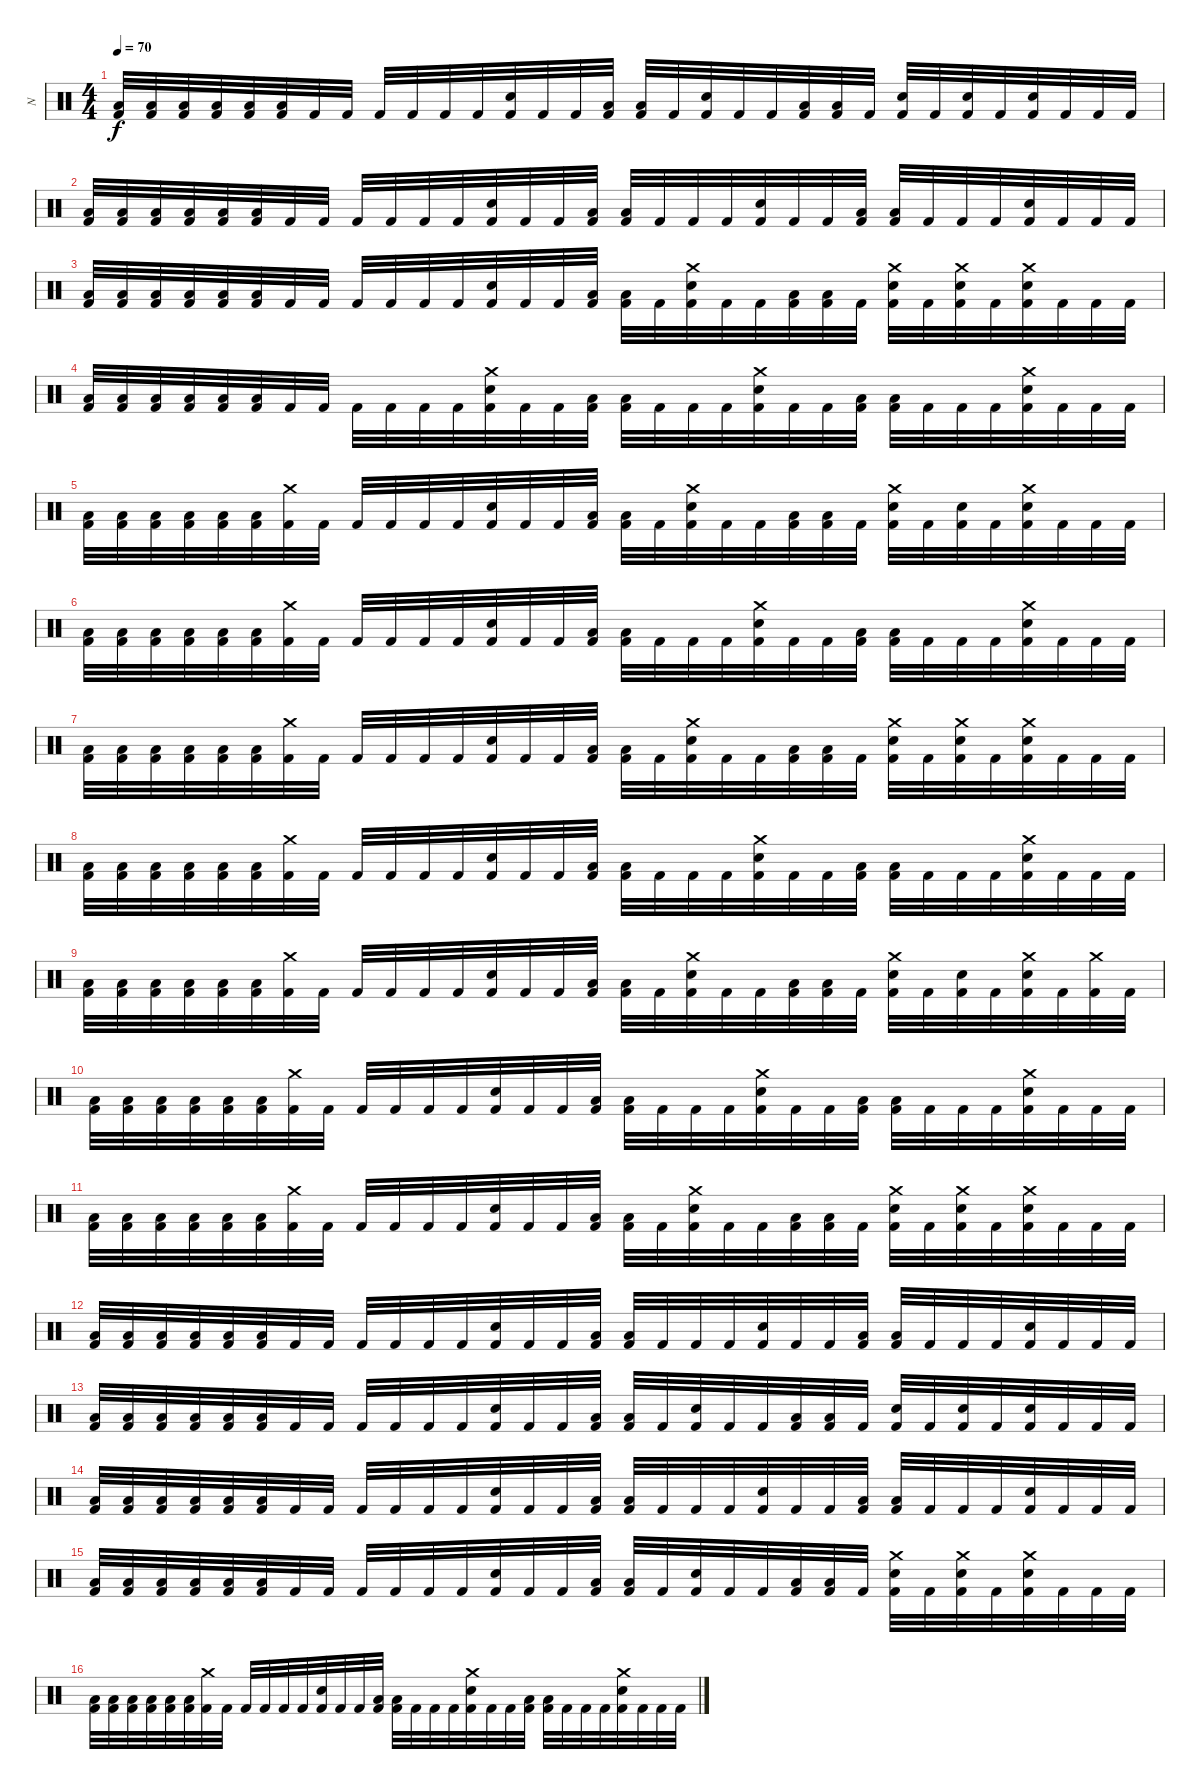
\track ("N" "N") {instrument percussion}
\staff {score}
\articulation defaults
\ts (4 4)
\tempo 70
\clef neutral
\ks c
("Low Tom (hit)" "Kick (hit) 2").32{dy f} ("Low Tom (hit)" "Kick (hit) 2").32 ("Low Tom (hit)" "Kick (hit) 2").32 ("Low Tom (hit)" "Kick (hit) 2").32 ("Low Tom (hit)" "Kick (hit) 2").32 ("Low Tom (hit)" "Kick (hit) 2").32 "Kick (hit) 2".32 "Kick (hit) 2".32 "Kick (hit) 2".32 "Kick (hit) 2".32 "Kick (hit) 2".32 "Kick (hit) 2".32 ("Electric Snare (hit)" "Kick (hit) 2").32 "Kick (hit) 2".32 "Kick (hit) 2".32 ("Low Tom (hit)" "Kick (hit) 2").32 ("Low Tom (hit)" "Kick (hit) 2").32 "Kick (hit) 2".32 ("Electric Snare (hit)" "Kick (hit) 2").32 "Kick (hit) 2".32 "Kick (hit) 2".32 ("Low Tom (hit)" "Kick (hit) 2").32 ("Low Tom (hit)" "Kick (hit) 2").32 "Kick (hit) 2".32 ("Electric Snare (hit)" "Kick (hit) 2").32 "Kick (hit) 2".32 ("Electric Snare (hit)" "Kick (hit) 2").32 "Kick (hit) 2".32 ("Electric Snare (hit)" "Kick (hit) 2").32 "Kick (hit) 2".32 "Kick (hit) 2".32 "Kick (hit) 2".32 |
("Low Tom (hit)" "Kick (hit) 2").32 ("Low Tom (hit)" "Kick (hit) 2").32 ("Low Tom (hit)" "Kick (hit) 2").32 ("Low Tom (hit)" "Kick (hit) 2").32 ("Low Tom (hit)" "Kick (hit) 2").32 ("Low Tom (hit)" "Kick (hit) 2").32 "Kick (hit) 2".32 "Kick (hit) 2".32 "Kick (hit) 2".32 "Kick (hit) 2".32 "Kick (hit) 2".32 "Kick (hit) 2".32 ("Electric Snare (hit)" "Kick (hit) 2").32 "Kick (hit) 2".32 "Kick (hit) 2".32 ("Low Tom (hit)" "Kick (hit) 2").32 ("Low Tom (hit)" "Kick (hit) 2").32 "Kick (hit) 2".32 "Kick (hit) 2".32 "Kick (hit) 2".32 ("Electric Snare (hit)" "Kick (hit) 2").32 "Kick (hit) 2".32 "Kick (hit) 2".32 ("Low Tom (hit)" "Kick (hit) 2").32 ("Low Tom (hit)" "Kick (hit) 2").32 "Kick (hit) 2".32 "Kick (hit) 2".32 "Kick (hit) 2".32 ("Electric Snare (hit)" "Kick (hit) 2").32 "Kick (hit) 2".32 "Kick (hit) 2".32 "Kick (hit) 2".32 |
("Low Tom (hit)" "Kick (hit) 2").32 ("Low Tom (hit)" "Kick (hit) 2").32 ("Low Tom (hit)" "Kick (hit) 2").32 ("Low Tom (hit)" "Kick (hit) 2").32 ("Low Tom (hit)" "Kick (hit) 2").32 ("Low Tom (hit)" "Kick (hit) 2").32 "Kick (hit) 2".32 "Kick (hit) 2".32 "Kick (hit) 2".32 "Kick (hit) 2".32 "Kick (hit) 2".32 "Kick (hit) 2".32 ("Electric Snare (hit)" "Kick (hit) 2").32 "Kick (hit) 2".32 "Kick (hit) 2".32 ("Low Tom (hit)" "Kick (hit) 2").32 ("Low Tom (hit)" "Kick (hit) 2").32 "Kick (hit) 2".32 ("Crash medium (hit)" "Electric Snare (hit)" "Kick (hit) 2").32 "Kick (hit) 2".32 "Kick (hit) 2".32 ("Low Tom (hit)" "Kick (hit) 2").32 ("Low Tom (hit)" "Kick (hit) 2").32 "Kick (hit) 2".32 ("Crash medium (hit)" "Electric Snare (hit)" "Kick (hit) 2").32 "Kick (hit) 2".32 ("Crash medium (hit)" "Electric Snare (hit)" "Kick (hit) 2").32 "Kick (hit) 2".32 ("Crash medium (hit)" "Electric Snare (hit)" "Kick (hit) 2").32 "Kick (hit) 2".32 "Kick (hit) 2".32 "Kick (hit) 2".32 |
("Low Tom (hit)" "Kick (hit) 2").32 ("Low Tom (hit)" "Kick (hit) 2").32 ("Low Tom (hit)" "Kick (hit) 2").32 ("Low Tom (hit)" "Kick (hit) 2").32 ("Low Tom (hit)" "Kick (hit) 2").32 ("Low Tom (hit)" "Kick (hit) 2").32 "Kick (hit) 2".32 "Kick (hit) 2".32 "Kick (hit) 2".32 "Kick (hit) 2".32 "Kick (hit) 2".32 "Kick (hit) 2".32 ("Crash medium (hit)" "Electric Snare (hit)" "Kick (hit) 2").32 "Kick (hit) 2".32 "Kick (hit) 2".32 ("Low Tom (hit)" "Kick (hit) 2").32 ("Low Tom (hit)" "Kick (hit) 2").32 "Kick (hit) 2".32 "Kick (hit) 2".32 "Kick (hit) 2".32 ("Crash medium (hit)" "Electric Snare (hit)" "Kick (hit) 2").32 "Kick (hit) 2".32 "Kick (hit) 2".32 ("Low Tom (hit)" "Kick (hit) 2").32 ("Low Tom (hit)" "Kick (hit) 2").32 "Kick (hit) 2".32 "Kick (hit) 2".32 "Kick (hit) 2".32 ("Crash medium (hit)" "Electric Snare (hit)" "Kick (hit) 2").32 "Kick (hit) 2".32 "Kick (hit) 2".32 "Kick (hit) 2".32 |
("Low Tom (hit)" "Kick (hit) 2").32 ("Low Tom (hit)" "Kick (hit) 2").32 ("Low Tom (hit)" "Kick (hit) 2").32 ("Low Tom (hit)" "Kick (hit) 2").32 ("Low Tom (hit)" "Kick (hit) 2").32 ("Low Tom (hit)" "Kick (hit) 2").32 ("Crash medium (hit)" "Kick (hit) 2").32 "Kick (hit) 2".32 "Kick (hit) 2".32 "Kick (hit) 2".32 "Kick (hit) 2".32 "Kick (hit) 2".32 ("Electric Snare (hit)" "Kick (hit) 2").32 "Kick (hit) 2".32 "Kick (hit) 2".32 ("Low Tom (hit)" "Kick (hit) 2").32 ("Low Tom (hit)" "Kick (hit) 2").32 "Kick (hit) 2".32 ("Crash medium (hit)" "Electric Snare (hit)" "Kick (hit) 2").32 "Kick (hit) 2".32 "Kick (hit) 2".32 ("Low Tom (hit)" "Kick (hit) 2").32 ("Low Tom (hit)" "Kick (hit) 2").32 "Kick (hit) 2".32 ("Crash medium (hit)" "Electric Snare (hit)" "Kick (hit) 2").32 "Kick (hit) 2".32 ("Electric Snare (hit)" "Kick (hit) 2").32 "Kick (hit) 2".32 ("Crash medium (hit)" "Electric Snare (hit)" "Kick (hit) 2").32 "Kick (hit) 2".32 "Kick (hit) 2".32 "Kick (hit) 2".32 |
("Low Tom (hit)" "Kick (hit) 2").32 ("Low Tom (hit)" "Kick (hit) 2").32 ("Low Tom (hit)" "Kick (hit) 2").32 ("Low Tom (hit)" "Kick (hit) 2").32 ("Low Tom (hit)" "Kick (hit) 2").32 ("Low Tom (hit)" "Kick (hit) 2").32 ("Crash medium (hit)" "Kick (hit) 2").32 "Kick (hit) 2".32 "Kick (hit) 2".32 "Kick (hit) 2".32 "Kick (hit) 2".32 "Kick (hit) 2".32 ("Electric Snare (hit)" "Kick (hit) 2").32 "Kick (hit) 2".32 "Kick (hit) 2".32 ("Low Tom (hit)" "Kick (hit) 2").32 ("Low Tom (hit)" "Kick (hit) 2").32 "Kick (hit) 2".32 "Kick (hit) 2".32 "Kick (hit) 2".32 ("Crash medium (hit)" "Electric Snare (hit)" "Kick (hit) 2").32 "Kick (hit) 2".32 "Kick (hit) 2".32 ("Low Tom (hit)" "Kick (hit) 2").32 ("Low Tom (hit)" "Kick (hit) 2").32 "Kick (hit) 2".32 "Kick (hit) 2".32 "Kick (hit) 2".32 ("Crash medium (hit)" "Electric Snare (hit)" "Kick (hit) 2").32 "Kick (hit) 2".32 "Kick (hit) 2".32 "Kick (hit) 2".32 |
("Low Tom (hit)" "Kick (hit) 2").32 ("Low Tom (hit)" "Kick (hit) 2").32 ("Low Tom (hit)" "Kick (hit) 2").32 ("Low Tom (hit)" "Kick (hit) 2").32 ("Low Tom (hit)" "Kick (hit) 2").32 ("Low Tom (hit)" "Kick (hit) 2").32 ("Crash medium (hit)" "Kick (hit) 2").32 "Kick (hit) 2".32 "Kick (hit) 2".32 "Kick (hit) 2".32 "Kick (hit) 2".32 "Kick (hit) 2".32 ("Electric Snare (hit)" "Kick (hit) 2").32 "Kick (hit) 2".32 "Kick (hit) 2".32 ("Low Tom (hit)" "Kick (hit) 2").32 ("Low Tom (hit)" "Kick (hit) 2").32 "Kick (hit) 2".32 ("Crash medium (hit)" "Electric Snare (hit)" "Kick (hit) 2").32 "Kick (hit) 2".32 "Kick (hit) 2".32 ("Low Tom (hit)" "Kick (hit) 2").32 ("Low Tom (hit)" "Kick (hit) 2").32 "Kick (hit) 2".32 ("Crash medium (hit)" "Electric Snare (hit)" "Kick (hit) 2").32 "Kick (hit) 2".32 ("Crash medium (hit)" "Electric Snare (hit)" "Kick (hit) 2").32 "Kick (hit) 2".32 ("Crash medium (hit)" "Electric Snare (hit)" "Kick (hit) 2").32 "Kick (hit) 2".32 "Kick (hit) 2".32 "Kick (hit) 2".32 |
("Low Tom (hit)" "Kick (hit) 2").32 ("Low Tom (hit)" "Kick (hit) 2").32 ("Low Tom (hit)" "Kick (hit) 2").32 ("Low Tom (hit)" "Kick (hit) 2").32 ("Low Tom (hit)" "Kick (hit) 2").32 ("Low Tom (hit)" "Kick (hit) 2").32 ("Crash medium (hit)" "Kick (hit) 2").32 "Kick (hit) 2".32 "Kick (hit) 2".32 "Kick (hit) 2".32 "Kick (hit) 2".32 "Kick (hit) 2".32 ("Electric Snare (hit)" "Kick (hit) 2").32 "Kick (hit) 2".32 "Kick (hit) 2".32 ("Low Tom (hit)" "Kick (hit) 2").32 ("Low Tom (hit)" "Kick (hit) 2").32 "Kick (hit) 2".32 "Kick (hit) 2".32 "Kick (hit) 2".32 ("Crash medium (hit)" "Electric Snare (hit)" "Kick (hit) 2").32 "Kick (hit) 2".32 "Kick (hit) 2".32 ("Low Tom (hit)" "Kick (hit) 2").32 ("Low Tom (hit)" "Kick (hit) 2").32 "Kick (hit) 2".32 "Kick (hit) 2".32 "Kick (hit) 2".32 ("Crash medium (hit)" "Electric Snare (hit)" "Kick (hit) 2").32 "Kick (hit) 2".32 "Kick (hit) 2".32 "Kick (hit) 2".32 |
("Low Tom (hit)" "Kick (hit) 2").32 ("Low Tom (hit)" "Kick (hit) 2").32 ("Low Tom (hit)" "Kick (hit) 2").32 ("Low Tom (hit)" "Kick (hit) 2").32 ("Low Tom (hit)" "Kick (hit) 2").32 ("Low Tom (hit)" "Kick (hit) 2").32 ("Crash medium (hit)" "Kick (hit) 2").32 "Kick (hit) 2".32 "Kick (hit) 2".32 "Kick (hit) 2".32 "Kick (hit) 2".32 "Kick (hit) 2".32 ("Electric Snare (hit)" "Kick (hit) 2").32 "Kick (hit) 2".32 "Kick (hit) 2".32 ("Low Tom (hit)" "Kick (hit) 2").32 ("Low Tom (hit)" "Kick (hit) 2").32 "Kick (hit) 2".32 ("Crash medium (hit)" "Electric Snare (hit)" "Kick (hit) 2").32 "Kick (hit) 2".32 "Kick (hit) 2".32 ("Low Tom (hit)" "Kick (hit) 2").32 ("Low Tom (hit)" "Kick (hit) 2").32 "Kick (hit) 2".32 ("Crash medium (hit)" "Electric Snare (hit)" "Kick (hit) 2").32 "Kick (hit) 2".32 ("Electric Snare (hit)" "Kick (hit) 2").32 "Kick (hit) 2".32 ("Crash medium (hit)" "Electric Snare (hit)" "Kick (hit) 2").32 "Kick (hit) 2".32 ("Crash medium (hit)" "Kick (hit) 2").32 "Kick (hit) 2".32 |
("Low Tom (hit)" "Kick (hit) 2").32 ("Low Tom (hit)" "Kick (hit) 2").32 ("Low Tom (hit)" "Kick (hit) 2").32 ("Low Tom (hit)" "Kick (hit) 2").32 ("Low Tom (hit)" "Kick (hit) 2").32 ("Low Tom (hit)" "Kick (hit) 2").32 ("Crash medium (hit)" "Kick (hit) 2").32 "Kick (hit) 2".32 "Kick (hit) 2".32 "Kick (hit) 2".32 "Kick (hit) 2".32 "Kick (hit) 2".32 ("Electric Snare (hit)" "Kick (hit) 2").32 "Kick (hit) 2".32 "Kick (hit) 2".32 ("Low Tom (hit)" "Kick (hit) 2").32 ("Low Tom (hit)" "Kick (hit) 2").32 "Kick (hit) 2".32 "Kick (hit) 2".32 "Kick (hit) 2".32 ("Crash medium (hit)" "Electric Snare (hit)" "Kick (hit) 2").32 "Kick (hit) 2".32 "Kick (hit) 2".32 ("Low Tom (hit)" "Kick (hit) 2").32 ("Low Tom (hit)" "Kick (hit) 2").32 "Kick (hit) 2".32 "Kick (hit) 2".32 "Kick (hit) 2".32 ("Crash medium (hit)" "Electric Snare (hit)" "Kick (hit) 2").32 "Kick (hit) 2".32 "Kick (hit) 2".32 "Kick (hit) 2".32 |
("Low Tom (hit)" "Kick (hit) 2").32 ("Low Tom (hit)" "Kick (hit) 2").32 ("Low Tom (hit)" "Kick (hit) 2").32 ("Low Tom (hit)" "Kick (hit) 2").32 ("Low Tom (hit)" "Kick (hit) 2").32 ("Low Tom (hit)" "Kick (hit) 2").32 ("Crash medium (hit)" "Kick (hit) 2").32 "Kick (hit) 2".32 "Kick (hit) 2".32 "Kick (hit) 2".32 "Kick (hit) 2".32 "Kick (hit) 2".32 ("Electric Snare (hit)" "Kick (hit) 2").32 "Kick (hit) 2".32 "Kick (hit) 2".32 ("Low Tom (hit)" "Kick (hit) 2").32 ("Low Tom (hit)" "Kick (hit) 2").32 "Kick (hit) 2".32 ("Crash medium (hit)" "Electric Snare (hit)" "Kick (hit) 2").32 "Kick (hit) 2".32 "Kick (hit) 2".32 ("Low Tom (hit)" "Kick (hit) 2").32 ("Low Tom (hit)" "Kick (hit) 2").32 "Kick (hit) 2".32 ("Crash medium (hit)" "Electric Snare (hit)" "Kick (hit) 2").32 "Kick (hit) 2".32 ("Crash medium (hit)" "Electric Snare (hit)" "Kick (hit) 2").32 "Kick (hit) 2".32 ("Crash medium (hit)" "Electric Snare (hit)" "Kick (hit) 2").32 "Kick (hit) 2".32 "Kick (hit) 2".32 "Kick (hit) 2".32 |
("Low Tom (hit)" "Kick (hit) 2").32 ("Low Tom (hit)" "Kick (hit) 2").32 ("Low Tom (hit)" "Kick (hit) 2").32 ("Low Tom (hit)" "Kick (hit) 2").32 ("Low Tom (hit)" "Kick (hit) 2").32 ("Low Tom (hit)" "Kick (hit) 2").32 "Kick (hit) 2".32 "Kick (hit) 2".32 "Kick (hit) 2".32 "Kick (hit) 2".32 "Kick (hit) 2".32 "Kick (hit) 2".32 ("Electric Snare (hit)" "Kick (hit) 2").32 "Kick (hit) 2".32 "Kick (hit) 2".32 ("Low Tom (hit)" "Kick (hit) 2").32 ("Low Tom (hit)" "Kick (hit) 2").32 "Kick (hit) 2".32 "Kick (hit) 2".32 "Kick (hit) 2".32 ("Electric Snare (hit)" "Kick (hit) 2").32 "Kick (hit) 2".32 "Kick (hit) 2".32 ("Low Tom (hit)" "Kick (hit) 2").32 ("Low Tom (hit)" "Kick (hit) 2").32 "Kick (hit) 2".32 "Kick (hit) 2".32 "Kick (hit) 2".32 ("Electric Snare (hit)" "Kick (hit) 2").32 "Kick (hit) 2".32 "Kick (hit) 2".32 "Kick (hit) 2".32 |
("Low Tom (hit)" "Kick (hit) 2").32 ("Low Tom (hit)" "Kick (hit) 2").32 ("Low Tom (hit)" "Kick (hit) 2").32 ("Low Tom (hit)" "Kick (hit) 2").32 ("Low Tom (hit)" "Kick (hit) 2").32 ("Low Tom (hit)" "Kick (hit) 2").32 "Kick (hit) 2".32 "Kick (hit) 2".32 "Kick (hit) 2".32 "Kick (hit) 2".32 "Kick (hit) 2".32 "Kick (hit) 2".32 ("Electric Snare (hit)" "Kick (hit) 2").32 "Kick (hit) 2".32 "Kick (hit) 2".32 ("Low Tom (hit)" "Kick (hit) 2").32 ("Low Tom (hit)" "Kick (hit) 2").32 "Kick (hit) 2".32 ("Electric Snare (hit)" "Kick (hit) 2").32 "Kick (hit) 2".32 "Kick (hit) 2".32 ("Low Tom (hit)" "Kick (hit) 2").32 ("Low Tom (hit)" "Kick (hit) 2").32 "Kick (hit) 2".32 ("Electric Snare (hit)" "Kick (hit) 2").32 "Kick (hit) 2".32 ("Electric Snare (hit)" "Kick (hit) 2").32 "Kick (hit) 2".32 ("Electric Snare (hit)" "Kick (hit) 2").32 "Kick (hit) 2".32 "Kick (hit) 2".32 "Kick (hit) 2".32 |
("Low Tom (hit)" "Kick (hit) 2").32 ("Low Tom (hit)" "Kick (hit) 2").32 ("Low Tom (hit)" "Kick (hit) 2").32 ("Low Tom (hit)" "Kick (hit) 2").32 ("Low Tom (hit)" "Kick (hit) 2").32 ("Low Tom (hit)" "Kick (hit) 2").32 "Kick (hit) 2".32 "Kick (hit) 2".32 "Kick (hit) 2".32 "Kick (hit) 2".32 "Kick (hit) 2".32 "Kick (hit) 2".32 ("Electric Snare (hit)" "Kick (hit) 2").32 "Kick (hit) 2".32 "Kick (hit) 2".32 ("Low Tom (hit)" "Kick (hit) 2").32 ("Low Tom (hit)" "Kick (hit) 2").32 "Kick (hit) 2".32 "Kick (hit) 2".32 "Kick (hit) 2".32 ("Electric Snare (hit)" "Kick (hit) 2").32 "Kick (hit) 2".32 "Kick (hit) 2".32 ("Low Tom (hit)" "Kick (hit) 2").32 ("Low Tom (hit)" "Kick (hit) 2").32 "Kick (hit) 2".32 "Kick (hit) 2".32 "Kick (hit) 2".32 ("Electric Snare (hit)" "Kick (hit) 2").32 "Kick (hit) 2".32 "Kick (hit) 2".32 "Kick (hit) 2".32 |
("Low Tom (hit)" "Kick (hit) 2").32 ("Low Tom (hit)" "Kick (hit) 2").32 ("Low Tom (hit)" "Kick (hit) 2").32 ("Low Tom (hit)" "Kick (hit) 2").32 ("Low Tom (hit)" "Kick (hit) 2").32 ("Low Tom (hit)" "Kick (hit) 2").32 "Kick (hit) 2".32 "Kick (hit) 2".32 "Kick (hit) 2".32 "Kick (hit) 2".32 "Kick (hit) 2".32 "Kick (hit) 2".32 ("Electric Snare (hit)" "Kick (hit) 2").32 "Kick (hit) 2".32 "Kick (hit) 2".32 ("Low Tom (hit)" "Kick (hit) 2").32 ("Low Tom (hit)" "Kick (hit) 2").32 "Kick (hit) 2".32 ("Electric Snare (hit)" "Kick (hit) 2").32 "Kick (hit) 2".32 "Kick (hit) 2".32 ("Low Tom (hit)" "Kick (hit) 2").32 ("Low Tom (hit)" "Kick (hit) 2").32 "Kick (hit) 2".32 ("Crash medium (hit)" "Electric Snare (hit)" "Kick (hit) 2").32 "Kick (hit) 2".32 ("Crash medium (hit)" "Electric Snare (hit)" "Kick (hit) 2").32 "Kick (hit) 2".32 ("Crash medium (hit)" "Electric Snare (hit)" "Kick (hit) 2").32 "Kick (hit) 2".32 "Kick (hit) 2".32 "Kick (hit) 2".32 |
("Low Tom (hit)" "Kick (hit) 2").32 ("Low Tom (hit)" "Kick (hit) 2").32 ("Low Tom (hit)" "Kick (hit) 2").32 ("Low Tom (hit)" "Kick (hit) 2").32 ("Low Tom (hit)" "Kick (hit) 2").32 ("Low Tom (hit)" "Kick (hit) 2").32 ("Crash medium (hit)" "Kick (hit) 2").32 "Kick (hit) 2".32 "Kick (hit) 2".32 "Kick (hit) 2".32 "Kick (hit) 2".32 "Kick (hit) 2".32 ("Electric Snare (hit)" "Kick (hit) 2").32 "Kick (hit) 2".32 "Kick (hit) 2".32 ("Low Tom (hit)" "Kick (hit) 2").32 ("Low Tom (hit)" "Kick (hit) 2").32 "Kick (hit) 2".32 "Kick (hit) 2".32 "Kick (hit) 2".32 ("Crash medium (hit)" "Electric Snare (hit)" "Kick (hit) 2").32 "Kick (hit) 2".32 "Kick (hit) 2".32 ("Low Tom (hit)" "Kick (hit) 2").32 ("Low Tom (hit)" "Kick (hit) 2").32 "Kick (hit) 2".32 "Kick (hit) 2".32 "Kick (hit) 2".32 ("Crash medium (hit)" "Electric Snare (hit)" "Kick (hit) 2").32 "Kick (hit) 2".32 "Kick (hit) 2".32 "Kick (hit) 2".32
